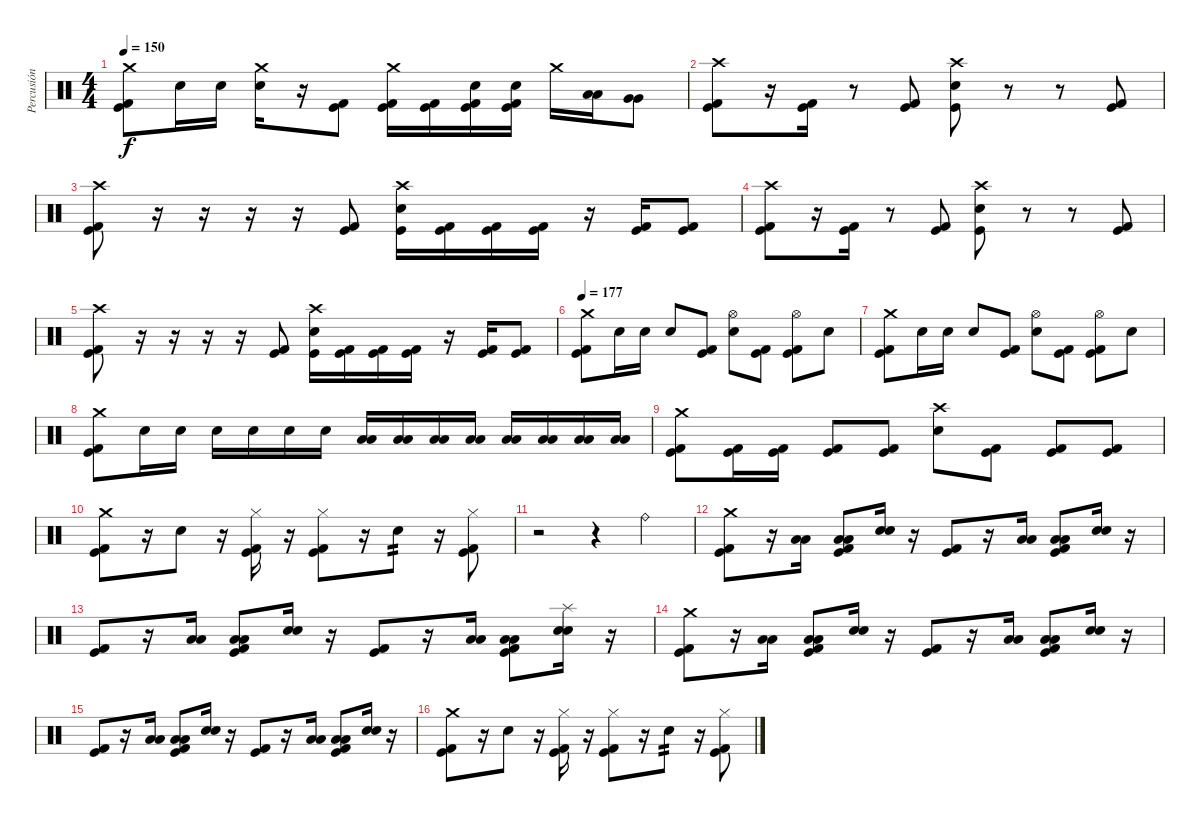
\track ("Percusión" "Percusión") {instrument percussion}
\staff {score}
\articulation defaults
\ts (4 4)
\tempo 150
\clef neutral
\ks c
("Crash medium (hit)" "Kick (hit)" "Kick (hit) 2").8{dy f} "Electric Snare (hit)".16 "Electric Snare (hit)".16 ("Crash medium (hit)" "Electric Snare (hit)").16 r.16 ("Kick (hit)" "Kick (hit) 2").8 ("Crash medium (hit)" "Kick (hit)" "Kick (hit) 2").16 ("Kick (hit)" "Kick (hit) 2").16 ("Electric Snare (hit)" "Kick (hit)" "Kick (hit) 2").16 ("Electric Snare (hit)" "Kick (hit)" "Kick (hit) 2").16 "Crash medium (hit)".16 ("Low Tom (hit)" "Low Tom (hit)").16 ("Very Low Tom (hit)" "Very Low Tom (hit)").8 |
("Crash high (hit)" "Kick (hit)" "Kick (hit) 2").8 r.16 ("Kick (hit)" "Kick (hit) 2").16 r.8 ("Kick (hit)" "Kick (hit) 2").8 ("Crash high (hit)" "Electric Snare (hit)" "Kick (hit)").8 r.8 r.8 ("Kick (hit)" "Kick (hit) 2").8 |
("Crash high (hit)" "Kick (hit)" "Kick (hit) 2").8 r.16 r.16 r.16 r.16 ("Kick (hit)" "Kick (hit) 2").8 ("Crash high (hit)" "Electric Snare (hit)" "Kick (hit)").16 ("Kick (hit)" "Kick (hit) 2").16 ("Kick (hit)" "Kick (hit) 2").16 ("Kick (hit)" "Kick (hit) 2").16 r.16 ("Kick (hit)" "Kick (hit) 2").16 ("Kick (hit)" "Kick (hit) 2").8 |
("Crash high (hit)" "Kick (hit)" "Kick (hit) 2").8 r.16 ("Kick (hit)" "Kick (hit) 2").16 r.8 ("Kick (hit)" "Kick (hit) 2").8 ("Crash high (hit)" "Electric Snare (hit)" "Kick (hit)").8 r.8 r.8 ("Kick (hit)" "Kick (hit) 2").8 |
("Crash high (hit)" "Kick (hit)" "Kick (hit) 2").8 r.16 r.16 r.16 r.16 ("Kick (hit)" "Kick (hit) 2").8 ("Crash high (hit)" "Electric Snare (hit)" "Kick (hit)").16 ("Kick (hit)" "Kick (hit) 2").16 ("Kick (hit)" "Kick (hit) 2").16 ("Kick (hit)" "Kick (hit) 2").16 r.16 ("Kick (hit)" "Kick (hit) 2").16 ("Kick (hit)" "Kick (hit) 2").8 |
\tempo 177
("Crash medium (hit)" "Kick (hit)" "Kick (hit) 2").8 "Electric Snare (hit)".16 "Electric Snare (hit)".16 "Electric Snare (hit)".8 ("Kick (hit)" "Kick (hit) 2").8 ("Hi-Hat (open)" "Electric Snare (hit)").8 ("Kick (hit)" "Kick (hit) 2").8 ("Hi-Hat (open)" "Kick (hit)" "Kick (hit) 2").8 "Electric Snare (hit)".8 |
("Crash medium (hit)" "Kick (hit)" "Kick (hit) 2").8 "Electric Snare (hit)".16 "Electric Snare (hit)".16 "Electric Snare (hit)".8 ("Kick (hit)" "Kick (hit) 2").8 ("Hi-Hat (open)" "Electric Snare (hit)").8 ("Kick (hit)" "Kick (hit) 2").8 ("Hi-Hat (open)" "Kick (hit)" "Kick (hit) 2").8 "Electric Snare (hit)".8 |
("Crash medium (hit)" "Kick (hit)" "Kick (hit) 2").8 "Electric Snare (hit)".16 "Electric Snare (hit)".16 "Electric Snare (hit)".16 "Electric Snare (hit)".16 "Electric Snare (hit)".16 "Electric Snare (hit)".16 ("Low Tom (hit)" "Low Tom (hit)").16 ("Low Tom (hit)" "Low Tom (hit)").16 ("Low Tom (hit)" "Low Tom (hit)").16 ("Low Tom (hit)" "Low Tom (hit)").16 ("Low Floor Tom (hit)" "Low Floor Tom (hit)").16 ("Low Floor Tom (hit)" "Low Floor Tom (hit)").16 ("Low Floor Tom (hit)" "Low Floor Tom (hit)").16 ("Low Floor Tom (hit)" "Low Floor Tom (hit)").16 |
("Crash medium (hit)" "Kick (hit)" "Kick (hit) 2").8 ("Kick (hit)" "Kick (hit) 2").16 ("Kick (hit)" "Kick (hit) 2").16 ("Kick (hit)" "Kick (hit) 2").8 ("Kick (hit)" "Kick (hit) 2").8 ("Crash high (hit)" "Electric Snare (hit)").8 ("Kick (hit)" "Kick (hit) 2").8 ("Kick (hit)" "Kick (hit) 2").8 ("Kick (hit)" "Kick (hit) 2").8 |
("Crash medium (hit)" "Kick (hit)" "Kick (hit) 2").8 r.16 "Electric Snare (hit)".8 r.16 ("Hi-Hat (closed)" "Kick (hit)" "Kick (hit) 2").16 r.16 ("Hi-Hat (closed)" "Kick (hit)" "Kick (hit) 2").8 r.16 "Electric Snare (hit)".8{tp 2} r.16 ("Hi-Hat (closed)" "Kick (hit)" "Kick (hit) 2").8 |
r.2 r.4 "Ride (bell)".4 |
("Crash medium (hit)" "Kick (hit)" "Kick (hit) 2").8 r.16 ("Low Tom (hit)" "Low Tom (hit)").16 ("Low Floor Tom (hit)" "Low Floor Tom (hit)" "Kick (hit) 2" "Kick (hit)").8 ("Electric Snare (hit)" "Electric Snare (hit)").16 r.16 ("Kick (hit)" "Kick (hit) 2").8 r.16 ("Low Tom (hit)" "Low Tom (hit)").16 ("Low Floor Tom (hit)" "Low Floor Tom (hit)" "Kick (hit)" "Kick (hit) 2").8 ("Electric Snare (hit)" "Electric Snare (hit)").16 r.16 |
("Kick (hit)" "Kick (hit) 2").8 r.16 ("Low Tom (hit)" "Low Tom (hit)").16 ("Low Floor Tom (hit)" "Low Floor Tom (hit)" "Kick (hit) 2" "Kick (hit)").8 ("Electric Snare (hit)" "Electric Snare (hit)").16 r.16 ("Kick (hit)" "Kick (hit) 2").8 r.16 ("Low Tom (hit)" "Low Tom (hit)").16 ("Low Floor Tom (hit)" "Low Floor Tom (hit)" "Kick (hit)" "Kick (hit) 2").8 ("Splash (hit)" "Electric Snare (hit)" "Electric Snare (hit)").16 r.16 |
("Crash medium (hit)" "Kick (hit)" "Kick (hit) 2").8 r.16 ("Low Tom (hit)" "Low Tom (hit)").16 ("Low Floor Tom (hit)" "Low Floor Tom (hit)" "Kick (hit) 2" "Kick (hit)").8 ("Electric Snare (hit)" "Electric Snare (hit)").16 r.16 ("Kick (hit)" "Kick (hit) 2").8 r.16 ("Low Tom (hit)" "Low Tom (hit)").16 ("Low Floor Tom (hit)" "Low Floor Tom (hit)" "Kick (hit)" "Kick (hit) 2").8 ("Electric Snare (hit)" "Electric Snare (hit)").16 r.16 |
("Kick (hit)" "Kick (hit) 2").8 r.16 ("Low Tom (hit)" "Low Tom (hit)").16 ("Low Floor Tom (hit)" "Low Floor Tom (hit)" "Kick (hit) 2" "Kick (hit)").8 ("Electric Snare (hit)" "Electric Snare (hit)").16 r.16 ("Kick (hit)" "Kick (hit) 2").8 r.16 ("Low Tom (hit)" "Low Tom (hit)").16 ("Low Floor Tom (hit)" "Low Floor Tom (hit)" "Kick (hit)" "Kick (hit) 2").8 ("Electric Snare (hit)" "Electric Snare (hit)").16 r.16 |
("Crash medium (hit)" "Kick (hit)" "Kick (hit) 2").8 r.16 "Electric Snare (hit)".8 r.16 ("Hi-Hat (closed)" "Kick (hit)" "Kick (hit) 2").16 r.16 ("Hi-Hat (closed)" "Kick (hit)" "Kick (hit) 2").8 r.16 "Electric Snare (hit)".8{tp 2} r.16 ("Hi-Hat (closed)" "Kick (hit)" "Kick (hit) 2").8
